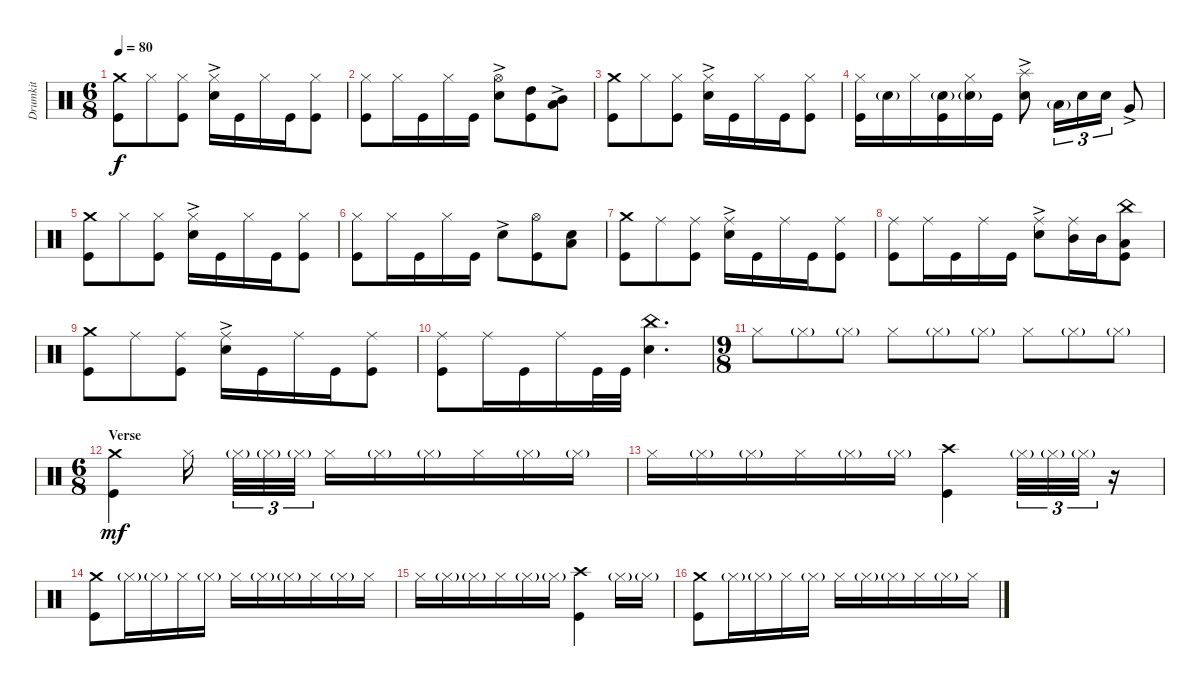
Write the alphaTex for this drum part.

\track ("Drumkit" "Drumkit") {instrument percussion}
\staff {score}
\articulation defaults
\ts (6 8)
\tempo 80
\clef neutral
\ks c
("Kick (hit)" "Crash medium (hit)").8{dy f} "Hi-Hat (closed)".8 ("Kick (hit)" "Hi-Hat (closed)").8 ("Hi-Hat (closed)" "Snare (hit) 2"{ac}).16 "Kick (hit)".16 "Hi-Hat (closed)".16 "Kick (hit)".16 ("Kick (hit)" "Hi-Hat (closed)").8 |
("Kick (hit)" "Hi-Hat (closed)").8 "Hi-Hat (closed)".16 "Kick (hit)".16 "Hi-Hat (closed)".16 "Kick (hit)".16 ("Snare (hit) 2"{ac} "Hi-Hat (open)").8 ("Kick (hit)" "High Tom (hit)").8 ("Low Tom (hit)" "Mid Tom (hit)"{ac}).8 |
("Kick (hit)" "Crash medium (hit)").8 "Hi-Hat (closed)".8 ("Kick (hit)" "Hi-Hat (closed)").8 ("Hi-Hat (closed)" "Snare (hit) 2"{ac}).16 "Kick (hit)".16 "Hi-Hat (closed)".16 "Kick (hit)".16 ("Kick (hit)" "Hi-Hat (closed)").8 |
("Kick (hit)" "Hi-Hat (closed)").16 "Snare (hit) 2"{g}.16 "Hi-Hat (closed)".16 ("Kick (hit)" "Snare (hit) 2"{g}).16 ("Hi-Hat (closed)" "Snare (hit) 2"{g}).16 "Kick (hit)".16 ("Snare (hit) 2"{ac} "Splash (hit)").8 "Low Tom (hit)"{g}.16{tu (3 2)} "Snare (hit) 2".16{tu (3 2)} "Snare (hit) 2".16{tu (3 2)} "Very Low Tom (hit)"{ac}.8 |
("Kick (hit)" "Crash medium (hit)").8 "Hi-Hat (closed)".8 ("Kick (hit)" "Hi-Hat (closed)").8 ("Hi-Hat (closed)" "Snare (hit) 2"{ac}).16 "Kick (hit)".16 "Hi-Hat (closed)".16 "Kick (hit)".16 ("Kick (hit)" "Hi-Hat (closed)").8 |
("Kick (hit)" "Hi-Hat (closed)").8 "Hi-Hat (closed)".16 "Kick (hit)".16 "Hi-Hat (closed)".16 "Kick (hit)".16 "Snare (hit) 2"{ac}.8 ("Kick (hit)" "Hi-Hat (open)").8 ("Low Tom (hit)" "Snare (hit) 2").8 |
("Kick (hit)" "Crash medium (hit)").8 "Ride (middle)".8 ("Kick (hit)" "Ride (middle)").8 ("Snare (hit) 2"{ac} "Ride (middle)").16 "Kick (hit)".16 "Ride (middle)".16 "Kick (hit)".16 ("Kick (hit)" "Ride (middle)").8 |
("Kick (hit)" "Ride (middle)").8 "Ride (middle)".16 "Kick (hit)".16 "Ride (middle)".16 "Kick (hit)".16 ("Snare (hit) 2"{ac} "Ride (middle)").8 ("Mid Tom (hit)" "Ride (middle)").16 "Mid Tom (hit)".16 ("Low Tom (hit)" "China (hit)" "Kick (hit)").8 |
("Kick (hit)" "Crash medium (hit)").8 "Ride (middle)".8 ("Kick (hit)" "Ride (middle)").8 ("Snare (hit) 2"{ac} "Ride (middle)").16 "Kick (hit)".16 "Ride (middle)".16 "Kick (hit)".16 ("Kick (hit)" "Ride (middle)").8 |
("Kick (hit)" "Ride (middle)").8 "Ride (middle)".16 "Kick (hit)".16 "Ride (middle)".16 "Kick (hit)".32 "Kick (hit)".32 ("Snare (hit) 2" "China (hit)").4{d} |
\ts (9 8)
"Hi-Hat (closed)".8 "Hi-Hat (closed)"{g}.8 "Hi-Hat (closed)"{g}.8 "Hi-Hat (closed)".8 "Hi-Hat (closed)"{g}.8 "Hi-Hat (closed)"{g}.8 "Hi-Hat (closed)".8 "Hi-Hat (closed)"{g}.8 "Hi-Hat (closed)"{g}.8 |
\ts (6 8)
\section ("" "Verse")
("Kick (hit)" "Crash medium (hit)").4{dy mf} "Hi-Hat (closed)".16 "Hi-Hat (closed)"{g}.32{tu (3 2)} "Hi-Hat (closed)"{g}.32{tu (3 2)} "Hi-Hat (closed)"{g}.32{tu (3 2)} "Hi-Hat (closed)".16 "Hi-Hat (closed)"{g}.16 "Hi-Hat (closed)"{g}.16 "Hi-Hat (closed)".16 "Hi-Hat (closed)"{g}.16 "Hi-Hat (closed)"{g}.16 |
"Hi-Hat (closed)".16 "Hi-Hat (closed)"{g}.16 "Hi-Hat (closed)"{g}.16 "Hi-Hat (closed)".16 "Hi-Hat (closed)"{g}.16 "Hi-Hat (closed)"{g}.16 ("Kick (hit)" "Crash high (hit)").4 "Hi-Hat (closed)"{g}.32{tu (3 2)} "Hi-Hat (closed)"{g}.32{tu (3 2)} "Hi-Hat (closed)"{g}.32{tu (3 2)} r.16 |
("Kick (hit)" "Crash medium (hit)").8 "Hi-Hat (closed)"{g}.16 "Hi-Hat (closed)"{g}.16 "Hi-Hat (closed)".16 "Hi-Hat (closed)"{g}.16 "Hi-Hat (closed)".16 "Hi-Hat (closed)"{g}.16 "Hi-Hat (closed)"{g}.16 "Hi-Hat (closed)".16 "Hi-Hat (closed)"{g}.16 "Hi-Hat (closed)".16 |
"Hi-Hat (closed)".16 "Hi-Hat (closed)"{g}.16 "Hi-Hat (closed)"{g}.16 "Hi-Hat (closed)".16 "Hi-Hat (closed)"{g}.16 "Hi-Hat (closed)"{g}.16 ("Kick (hit)" "Crash high (hit)").4 "Hi-Hat (closed)"{g}.16 "Hi-Hat (closed)"{g}.16 |
("Kick (hit)" "Crash medium (hit)").8 "Hi-Hat (closed)"{g}.16 "Hi-Hat (closed)"{g}.16 "Hi-Hat (closed)".16 "Hi-Hat (closed)"{g}.16 "Hi-Hat (closed)".16 "Hi-Hat (closed)"{g}.16 "Hi-Hat (closed)"{g}.16 "Hi-Hat (closed)".16 "Hi-Hat (closed)"{g}.16 "Hi-Hat (closed)".16
